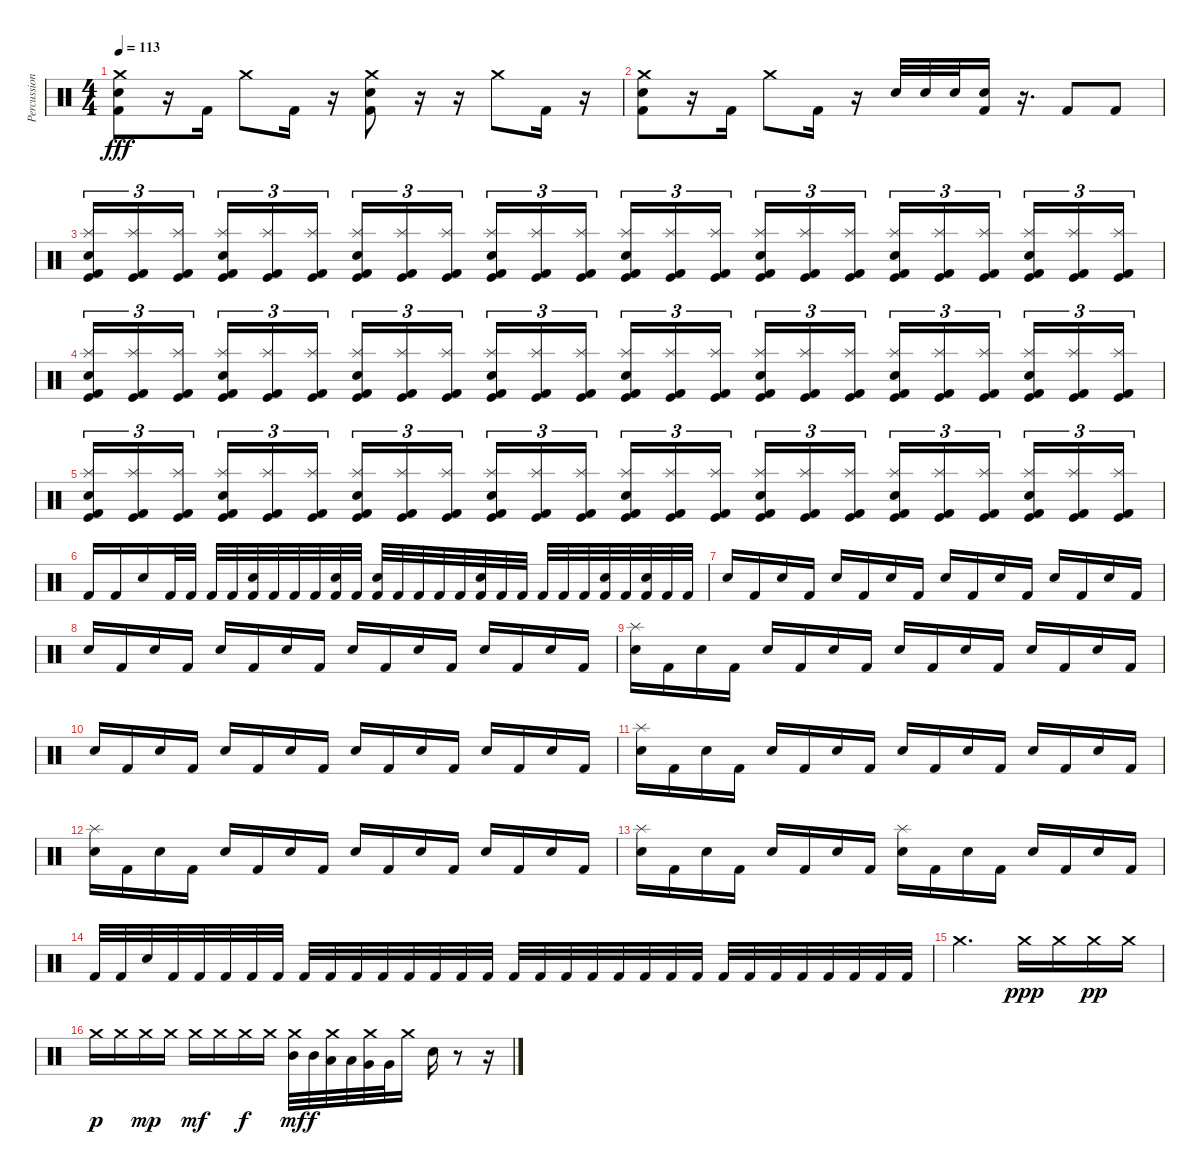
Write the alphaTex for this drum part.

\track ("Percussion" "Percussion") {instrument percussion}
\staff {score}
\articulation defaults
\ts (4 4)
\tempo 113
\clef neutral
\ks c
("Crash medium (hit)" "Electric Snare (hit)" "Kick (hit) 2").8{dy fff} r.16 "Kick (hit) 2".16 "Crash medium (hit)".8 "Kick (hit) 2".16 r.16 ("Crash medium (hit)" "Electric Snare (hit)" "Kick (hit) 2").8 r.16 r.16 "Crash medium (hit)".8 "Kick (hit) 2".16 r.16 |
("Crash medium (hit)" "Electric Snare (hit)" "Kick (hit) 2").8 r.16 "Kick (hit) 2".16 "Crash medium (hit)".8 "Kick (hit) 2".16 r.16 "Electric Snare (hit)".32 "Electric Snare (hit)".32 "Electric Snare (hit)".32 ("Electric Snare (hit)" "Kick (hit) 2").16 r.16{d} "Kick (hit) 2".8 "Kick (hit) 2".8 |
("Splash (hit)" "Electric Snare (hit)" "Kick (hit) 2" "Kick (hit)").16{tu (3 2)} ("Splash (hit)" "Kick (hit) 2" "Kick (hit)").16{tu (3 2)} ("Splash (hit)" "Kick (hit) 2" "Kick (hit)").16{tu (3 2) beam splitsecondary} ("Splash (hit)" "Electric Snare (hit)" "Kick (hit) 2" "Kick (hit)").16{tu (3 2)} ("Splash (hit)" "Kick (hit) 2" "Kick (hit)").16{tu (3 2)} ("Splash (hit)" "Kick (hit) 2" "Kick (hit)").16{tu (3 2)} ("Splash (hit)" "Electric Snare (hit)" "Kick (hit) 2" "Kick (hit)").16{tu (3 2)} ("Splash (hit)" "Kick (hit) 2" "Kick (hit)").16{tu (3 2)} ("Splash (hit)" "Kick (hit) 2" "Kick (hit)").16{tu (3 2) beam splitsecondary} ("Splash (hit)" "Electric Snare (hit)" "Kick (hit) 2" "Kick (hit)").16{tu (3 2)} ("Splash (hit)" "Kick (hit) 2" "Kick (hit)").16{tu (3 2)} ("Splash (hit)" "Kick (hit) 2" "Kick (hit)").16{tu (3 2)} ("Splash (hit)" "Electric Snare (hit)" "Kick (hit) 2" "Kick (hit)").16{tu (3 2)} ("Splash (hit)" "Kick (hit) 2" "Kick (hit)").16{tu (3 2)} ("Splash (hit)" "Kick (hit) 2" "Kick (hit)").16{tu (3 2) beam splitsecondary} ("Splash (hit)" "Electric Snare (hit)" "Kick (hit) 2" "Kick (hit)").16{tu (3 2)} ("Splash (hit)" "Kick (hit) 2" "Kick (hit)").16{tu (3 2)} ("Splash (hit)" "Kick (hit) 2" "Kick (hit)").16{tu (3 2)} ("Splash (hit)" "Electric Snare (hit)" "Kick (hit) 2" "Kick (hit)").16{tu (3 2)} ("Splash (hit)" "Kick (hit) 2" "Kick (hit)").16{tu (3 2)} ("Splash (hit)" "Kick (hit) 2" "Kick (hit)").16{tu (3 2) beam splitsecondary} ("Splash (hit)" "Electric Snare (hit)" "Kick (hit) 2" "Kick (hit)").16{tu (3 2)} ("Splash (hit)" "Kick (hit) 2" "Kick (hit)").16{tu (3 2)} ("Splash (hit)" "Kick (hit) 2" "Kick (hit)").16{tu (3 2)} |
("Splash (hit)" "Electric Snare (hit)" "Kick (hit) 2" "Kick (hit)").16{tu (3 2)} ("Splash (hit)" "Kick (hit) 2" "Kick (hit)").16{tu (3 2)} ("Splash (hit)" "Kick (hit) 2" "Kick (hit)").16{tu (3 2) beam splitsecondary} ("Splash (hit)" "Electric Snare (hit)" "Kick (hit) 2" "Kick (hit)").16{tu (3 2)} ("Splash (hit)" "Kick (hit) 2" "Kick (hit)").16{tu (3 2)} ("Splash (hit)" "Kick (hit) 2" "Kick (hit)").16{tu (3 2)} ("Splash (hit)" "Electric Snare (hit)" "Kick (hit) 2" "Kick (hit)").16{tu (3 2)} ("Splash (hit)" "Kick (hit) 2" "Kick (hit)").16{tu (3 2)} ("Splash (hit)" "Kick (hit) 2" "Kick (hit)").16{tu (3 2) beam splitsecondary} ("Splash (hit)" "Electric Snare (hit)" "Kick (hit) 2" "Kick (hit)").16{tu (3 2)} ("Splash (hit)" "Kick (hit) 2" "Kick (hit)").16{tu (3 2)} ("Splash (hit)" "Kick (hit) 2" "Kick (hit)").16{tu (3 2)} ("Splash (hit)" "Electric Snare (hit)" "Kick (hit) 2" "Kick (hit)").16{tu (3 2)} ("Splash (hit)" "Kick (hit) 2" "Kick (hit)").16{tu (3 2)} ("Splash (hit)" "Kick (hit) 2" "Kick (hit)").16{tu (3 2) beam splitsecondary} ("Splash (hit)" "Electric Snare (hit)" "Kick (hit) 2" "Kick (hit)").16{tu (3 2)} ("Splash (hit)" "Kick (hit) 2" "Kick (hit)").16{tu (3 2)} ("Splash (hit)" "Kick (hit) 2" "Kick (hit)").16{tu (3 2)} ("Splash (hit)" "Electric Snare (hit)" "Kick (hit) 2" "Kick (hit)").16{tu (3 2)} ("Splash (hit)" "Kick (hit) 2" "Kick (hit)").16{tu (3 2)} ("Splash (hit)" "Kick (hit) 2" "Kick (hit)").16{tu (3 2) beam splitsecondary} ("Splash (hit)" "Electric Snare (hit)" "Kick (hit) 2" "Kick (hit)").16{tu (3 2)} ("Splash (hit)" "Kick (hit) 2" "Kick (hit)").16{tu (3 2)} ("Splash (hit)" "Kick (hit) 2" "Kick (hit)").16{tu (3 2)} |
("Splash (hit)" "Electric Snare (hit)" "Kick (hit) 2" "Kick (hit)").16{tu (3 2)} ("Splash (hit)" "Kick (hit) 2" "Kick (hit)").16{tu (3 2)} ("Splash (hit)" "Kick (hit) 2" "Kick (hit)").16{tu (3 2) beam splitsecondary} ("Splash (hit)" "Electric Snare (hit)" "Kick (hit) 2" "Kick (hit)").16{tu (3 2)} ("Splash (hit)" "Kick (hit) 2" "Kick (hit)").16{tu (3 2)} ("Splash (hit)" "Kick (hit) 2" "Kick (hit)").16{tu (3 2)} ("Splash (hit)" "Electric Snare (hit)" "Kick (hit) 2" "Kick (hit)").16{tu (3 2)} ("Splash (hit)" "Kick (hit) 2" "Kick (hit)").16{tu (3 2)} ("Splash (hit)" "Kick (hit) 2" "Kick (hit)").16{tu (3 2) beam splitsecondary} ("Splash (hit)" "Electric Snare (hit)" "Kick (hit) 2" "Kick (hit)").16{tu (3 2)} ("Splash (hit)" "Kick (hit) 2" "Kick (hit)").16{tu (3 2)} ("Splash (hit)" "Kick (hit) 2" "Kick (hit)").16{tu (3 2)} ("Splash (hit)" "Electric Snare (hit)" "Kick (hit) 2" "Kick (hit)").16{tu (3 2)} ("Splash (hit)" "Kick (hit) 2" "Kick (hit)").16{tu (3 2)} ("Splash (hit)" "Kick (hit) 2" "Kick (hit)").16{tu (3 2) beam splitsecondary} ("Splash (hit)" "Electric Snare (hit)" "Kick (hit) 2" "Kick (hit)").16{tu (3 2)} ("Splash (hit)" "Kick (hit) 2" "Kick (hit)").16{tu (3 2)} ("Splash (hit)" "Kick (hit) 2" "Kick (hit)").16{tu (3 2)} ("Splash (hit)" "Electric Snare (hit)" "Kick (hit) 2" "Kick (hit)").16{tu (3 2)} ("Splash (hit)" "Kick (hit) 2" "Kick (hit)").16{tu (3 2)} ("Splash (hit)" "Kick (hit) 2" "Kick (hit)").16{tu (3 2) beam splitsecondary} ("Splash (hit)" "Electric Snare (hit)" "Kick (hit) 2" "Kick (hit)").16{tu (3 2)} ("Splash (hit)" "Kick (hit) 2" "Kick (hit)").16{tu (3 2)} ("Splash (hit)" "Kick (hit) 2" "Kick (hit)").16{tu (3 2)} |
"Kick (hit) 2".16 "Kick (hit) 2".16 "Electric Snare (hit)".16 "Kick (hit) 2".32 "Kick (hit) 2".32 "Kick (hit) 2".32 "Kick (hit) 2".32 ("Electric Snare (hit)" "Kick (hit) 2").32 "Kick (hit) 2".32 "Kick (hit) 2".32 "Kick (hit) 2".32 ("Electric Snare (hit)" "Kick (hit) 2").32 "Kick (hit) 2".32 ("Electric Snare (hit)" "Kick (hit) 2").32 "Kick (hit) 2".32 "Kick (hit) 2".32 "Kick (hit) 2".32 "Kick (hit) 2".32 ("Electric Snare (hit)" "Kick (hit) 2").32 "Kick (hit) 2".32 "Kick (hit) 2".32 "Kick (hit) 2".32 "Kick (hit) 2".32 "Kick (hit) 2".32 ("Electric Snare (hit)" "Kick (hit) 2").32 "Kick (hit) 2".32 ("Electric Snare (hit)" "Kick (hit) 2").32 "Kick (hit) 2".32 "Kick (hit) 2".32 |
"Electric Snare (hit)".16 "Kick (hit) 2".16 "Electric Snare (hit)".16 "Kick (hit) 2".16 "Electric Snare (hit)".16 "Kick (hit) 2".16 "Electric Snare (hit)".16 "Kick (hit) 2".16 "Electric Snare (hit)".16 "Kick (hit) 2".16 "Electric Snare (hit)".16 "Kick (hit) 2".16 "Electric Snare (hit)".16 "Kick (hit) 2".16 "Electric Snare (hit)".16 "Kick (hit) 2".16 |
"Electric Snare (hit)".16 "Kick (hit) 2".16 "Electric Snare (hit)".16 "Kick (hit) 2".16 "Electric Snare (hit)".16 "Kick (hit) 2".16 "Electric Snare (hit)".16 "Kick (hit) 2".16 "Electric Snare (hit)".16 "Kick (hit) 2".16 "Electric Snare (hit)".16 "Kick (hit) 2".16 "Electric Snare (hit)".16 "Kick (hit) 2".16 "Electric Snare (hit)".16 "Kick (hit) 2".16 |
("Splash (hit)" "Electric Snare (hit)").16 "Kick (hit) 2".16 "Electric Snare (hit)".16 "Kick (hit) 2".16 "Electric Snare (hit)".16 "Kick (hit) 2".16 "Electric Snare (hit)".16 "Kick (hit) 2".16 "Electric Snare (hit)".16 "Kick (hit) 2".16 "Electric Snare (hit)".16 "Kick (hit) 2".16 "Electric Snare (hit)".16 "Kick (hit) 2".16 "Electric Snare (hit)".16 "Kick (hit) 2".16 |
"Electric Snare (hit)".16 "Kick (hit) 2".16 "Electric Snare (hit)".16 "Kick (hit) 2".16 "Electric Snare (hit)".16 "Kick (hit) 2".16 "Electric Snare (hit)".16 "Kick (hit) 2".16 "Electric Snare (hit)".16 "Kick (hit) 2".16 "Electric Snare (hit)".16 "Kick (hit) 2".16 "Electric Snare (hit)".16 "Kick (hit) 2".16 "Electric Snare (hit)".16 "Kick (hit) 2".16 |
("Splash (hit)" "Electric Snare (hit)").16 "Kick (hit) 2".16 "Electric Snare (hit)".16 "Kick (hit) 2".16 "Electric Snare (hit)".16 "Kick (hit) 2".16 "Electric Snare (hit)".16 "Kick (hit) 2".16 "Electric Snare (hit)".16 "Kick (hit) 2".16 "Electric Snare (hit)".16 "Kick (hit) 2".16 "Electric Snare (hit)".16 "Kick (hit) 2".16 "Electric Snare (hit)".16 "Kick (hit) 2".16 |
("Splash (hit)" "Electric Snare (hit)").16 "Kick (hit) 2".16 "Electric Snare (hit)".16 "Kick (hit) 2".16 "Electric Snare (hit)".16 "Kick (hit) 2".16 "Electric Snare (hit)".16 "Kick (hit) 2".16 "Electric Snare (hit)".16 "Kick (hit) 2".16 "Electric Snare (hit)".16 "Kick (hit) 2".16 "Electric Snare (hit)".16 "Kick (hit) 2".16 "Electric Snare (hit)".16 "Kick (hit) 2".16 |
("Splash (hit)" "Electric Snare (hit)").16 "Kick (hit) 2".16 "Electric Snare (hit)".16 "Kick (hit) 2".16 "Electric Snare (hit)".16 "Kick (hit) 2".16 "Electric Snare (hit)".16 "Kick (hit) 2".16 ("Splash (hit)" "Electric Snare (hit)").16 "Kick (hit) 2".16 "Electric Snare (hit)".16 "Kick (hit) 2".16 "Electric Snare (hit)".16 "Kick (hit) 2".16 "Electric Snare (hit)".16 "Kick (hit) 2".16 |
"Kick (hit) 2".32 "Kick (hit) 2".32 "Electric Snare (hit)".32 "Kick (hit) 2".32 "Kick (hit) 2".32 "Kick (hit) 2".32 "Kick (hit) 2".32 "Kick (hit) 2".32 "Kick (hit) 2".32 "Kick (hit) 2".32 "Kick (hit) 2".32 "Kick (hit) 2".32 "Kick (hit) 2".32 "Kick (hit) 2".32 "Kick (hit) 2".32 "Kick (hit) 2".32 "Kick (hit) 2".32 "Kick (hit) 2".32 "Kick (hit) 2".32 "Kick (hit) 2".32 "Kick (hit) 2".32 "Kick (hit) 2".32 "Kick (hit) 2".32 "Kick (hit) 2".32 "Kick (hit) 2".32 "Kick (hit) 2".32 "Kick (hit) 2".32 "Kick (hit) 2".32 "Kick (hit) 2".32 "Kick (hit) 2".32 "Kick (hit) 2".32 "Kick (hit) 2".32 |
"Crash medium (hit)".2{d} "Crash medium (hit)".16{dy ppp} "Crash medium (hit)".16 "Crash medium (hit)".16{dy pp} "Crash medium (hit)".16 |
"Crash medium (hit)".16{dy p} "Crash medium (hit)".16 "Crash medium (hit)".16{dy mp} "Crash medium (hit)".16 "Crash medium (hit)".16{dy mf} "Crash medium (hit)".16 "Crash medium (hit)".16{dy f} "Crash medium (hit)".16 ("Crash medium (hit)" "Mid Tom (hit)").32{dy mf} "Mid Tom (hit)".32{dy f} ("Crash medium (hit)" "Low Tom (hit)").32 "Low Tom (hit)".32 ("Crash medium (hit)" "Very Low Tom (hit)").32 "Very Low Tom (hit)".32 "Crash medium (hit)".16 "Electric Snare (hit)".16 r.8 r.16
